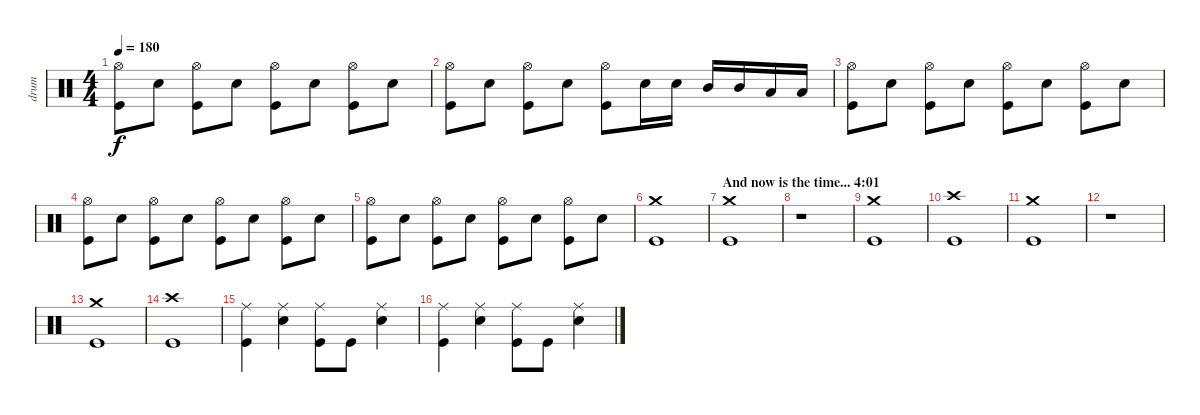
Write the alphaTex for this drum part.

\track ("drum" "drum") {instrument percussion}
\staff {score}
\articulation defaults
\ts (4 4)
\tempo 180
\clef neutral
\ks c
("Hi-Hat (open)" "Kick (hit)").8{dy f} "Snare (hit) 2".8 ("Hi-Hat (open)" "Kick (hit)").8 "Snare (hit) 2".8 ("Hi-Hat (open)" "Kick (hit)").8 "Snare (hit) 2".8 ("Hi-Hat (open)" "Kick (hit)").8 "Snare (hit) 2".8 |
("Hi-Hat (open)" "Kick (hit)").8 "Snare (hit) 2".8 ("Hi-Hat (open)" "Kick (hit)").8 "Snare (hit) 2".8 ("Hi-Hat (open)" "Kick (hit)").8 "Snare (hit) 2".16 "Snare (hit) 2".16 "Mid Tom (hit)".16 "Mid Tom (hit)".16 "Low Tom (hit)".16 "Low Tom (hit)".16 |
("Hi-Hat (open)" "Kick (hit)").8 "Snare (hit) 2".8 ("Hi-Hat (open)" "Kick (hit)").8 "Snare (hit) 2".8 ("Hi-Hat (open)" "Kick (hit)").8 "Snare (hit) 2".8 ("Hi-Hat (open)" "Kick (hit)").8 "Snare (hit) 2".8 |
("Hi-Hat (open)" "Kick (hit)").8 "Snare (hit) 2".8 ("Hi-Hat (open)" "Kick (hit)").8 "Snare (hit) 2".8 ("Hi-Hat (open)" "Kick (hit)").8 "Snare (hit) 2".8 ("Hi-Hat (open)" "Kick (hit)").8 "Snare (hit) 2".8 |
("Hi-Hat (open)" "Kick (hit)").8 "Snare (hit) 2".8 ("Hi-Hat (open)" "Kick (hit)").8 "Snare (hit) 2".8 ("Hi-Hat (open)" "Kick (hit)").8 "Snare (hit) 2".8 ("Hi-Hat (open)" "Kick (hit)").8 "Snare (hit) 2".8 |
("Crash medium (hit)" "Kick (hit)").1 |
\section ("" "And now is the time... 4:01")
("Crash medium (hit)" "Kick (hit)").1 |
r.1 |
("Crash medium (hit)" "Kick (hit)").1 |
("Crash high (hit)" "Kick (hit)").1 |
("Crash medium (hit)" "Kick (hit)").1 |
r.1 |
("Crash medium (hit)" "Kick (hit)").1 |
("Crash high (hit)" "Kick (hit)").1 |
("Ride (middle)" "Kick (hit)").4 ("Ride (middle)" "Snare (hit) 2").4 ("Ride (middle)" "Kick (hit)").8 "Kick (hit)".8 ("Ride (middle)" "Snare (hit) 2").4 |
("Ride (middle)" "Kick (hit)").4 ("Ride (middle)" "Snare (hit) 2").4 ("Ride (middle)" "Kick (hit)").8 "Kick (hit)".8 ("Ride (middle)" "Snare (hit) 2").4
